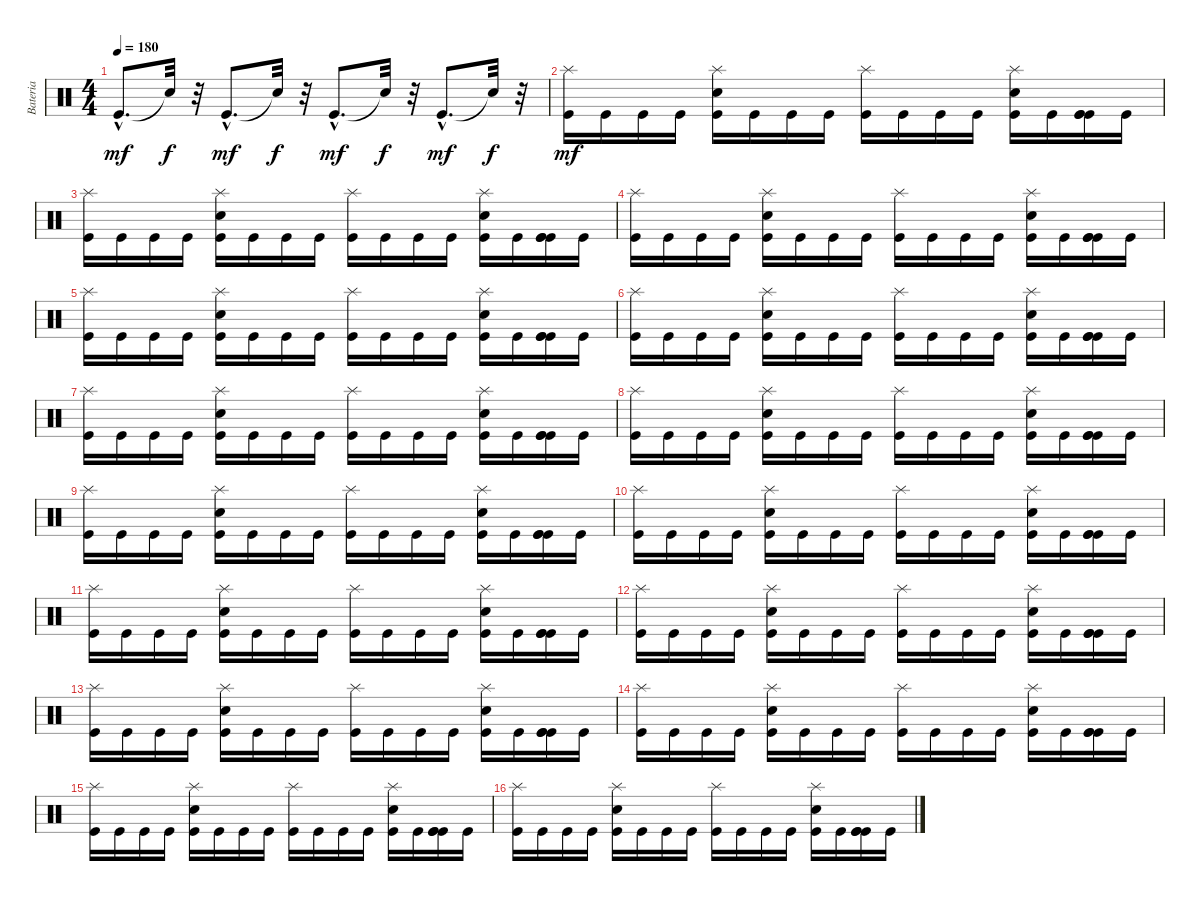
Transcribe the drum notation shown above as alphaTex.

\track ("Bateria" "Bateria") {instrument percussion}
\staff {score}
\articulation defaults
\ts (4 4)
\tempo 180
\clef neutral
\ks c "Kick (hit)"{hac}.8{d dy mf} "Snare (hit)"{t}.32{dy f}
r.32 "Kick (hit)"{hac}.8{d dy mf} "Snare (hit)"{t}.32{dy f} r.32 "Kick (hit)"{hac}.8{d dy mf} "Snare (hit)"{t}.32{dy f} r.32 "Kick (hit)"{hac}.8{d dy mf} "Snare (hit)"{t}.32{dy f} r.32 |
("Splash (hit)" "Kick (hit)").16{dy mf} "Kick (hit)".16 "Kick (hit)".16 "Kick (hit)".16 ("Kick (hit)" "Splash (hit)" "Snare (hit) 2").16 "Kick (hit)".16 "Kick (hit)".16 "Kick (hit)".16 ("Kick (hit)" "Splash (hit)").16 "Kick (hit)".16 "Kick (hit)".16 "Kick (hit)".16 ("Snare (hit) 2" "Kick (hit)" "Splash (hit)").16 "Kick (hit)".16 ("Kick (hit)" "Kick (hit)" "Kick (hit)").16 "Kick (hit)".16 |
("Splash (hit)" "Kick (hit)").16 "Kick (hit)".16 "Kick (hit)".16 "Kick (hit)".16 ("Kick (hit)" "Snare (hit) 2" "Splash (hit)").16 "Kick (hit)".16 "Kick (hit)".16 "Kick (hit)".16 ("Kick (hit)" "Splash (hit)").16 "Kick (hit)".16 "Kick (hit)".16 "Kick (hit)".16 ("Kick (hit)" "Splash (hit)" "Snare (hit) 2").16 "Kick (hit)".16 ("Kick (hit)" "Kick (hit)" "Kick (hit)").16 "Kick (hit)".16 |
("Kick (hit)" "Splash (hit)").16 "Kick (hit)".16 "Kick (hit)".16 "Kick (hit)".16 ("Snare (hit) 2" "Kick (hit)" "Splash (hit)").16 "Kick (hit)".16 "Kick (hit)".16 "Kick (hit)".16 ("Splash (hit)" "Kick (hit)").16 "Kick (hit)".16 "Kick (hit)".16 "Kick (hit)".16 ("Splash (hit)" "Kick (hit)" "Snare (hit) 2").16 "Kick (hit)".16 ("Kick (hit)" "Kick (hit)" "Kick (hit)").16 "Kick (hit)".16 |
("Splash (hit)" "Kick (hit)").16 "Kick (hit)".16 "Kick (hit)".16 "Kick (hit)".16 ("Splash (hit)" "Kick (hit)" "Snare (hit) 2").16 "Kick (hit)".16 "Kick (hit)".16 "Kick (hit)".16 ("Splash (hit)" "Kick (hit)").16 "Kick (hit)".16 "Kick (hit)".16 "Kick (hit)".16 ("Splash (hit)" "Snare (hit) 2" "Kick (hit)").16 "Kick (hit)".16 ("Kick (hit)" "Kick (hit)" "Kick (hit)").16 "Kick (hit)".16 |
("Kick (hit)" "Splash (hit)").16 "Kick (hit)".16 "Kick (hit)".16 "Kick (hit)".16 ("Splash (hit)" "Kick (hit)" "Snare (hit) 2").16 "Kick (hit)".16 "Kick (hit)".16 "Kick (hit)".16 ("Kick (hit)" "Splash (hit)").16 "Kick (hit)".16 "Kick (hit)".16 "Kick (hit)".16 ("Snare (hit) 2" "Splash (hit)" "Kick (hit)").16 "Kick (hit)".16 ("Kick (hit)" "Kick (hit)" "Kick (hit)").16 "Kick (hit)".16 |
("Splash (hit)" "Kick (hit)").16 "Kick (hit)".16 "Kick (hit)".16 "Kick (hit)".16 ("Kick (hit)" "Snare (hit) 2" "Splash (hit)").16 "Kick (hit)".16 "Kick (hit)".16 "Kick (hit)".16 ("Kick (hit)" "Splash (hit)").16 "Kick (hit)".16 "Kick (hit)".16 "Kick (hit)".16 ("Kick (hit)" "Splash (hit)" "Snare (hit) 2").16 "Kick (hit)".16 ("Kick (hit)" "Kick (hit)" "Kick (hit)").16 "Kick (hit)".16 |
("Kick (hit)" "Splash (hit)").16 "Kick (hit)".16 "Kick (hit)".16 "Kick (hit)".16 ("Snare (hit) 2" "Kick (hit)" "Splash (hit)").16 "Kick (hit)".16 "Kick (hit)".16 "Kick (hit)".16 ("Kick (hit)" "Splash (hit)").16 "Kick (hit)".16 "Kick (hit)".16 "Kick (hit)".16 ("Snare (hit) 2" "Kick (hit)" "Splash (hit)").16 "Kick (hit)".16 ("Kick (hit)" "Kick (hit)" "Kick (hit)").16 "Kick (hit)".16 |
("Splash (hit)" "Kick (hit)").16 "Kick (hit)".16 "Kick (hit)".16 "Kick (hit)".16 ("Splash (hit)" "Snare (hit) 2" "Kick (hit)").16 "Kick (hit)".16 "Kick (hit)".16 "Kick (hit)".16 ("Kick (hit)" "Splash (hit)").16 "Kick (hit)".16 "Kick (hit)".16 "Kick (hit)".16 ("Splash (hit)" "Snare (hit) 2" "Kick (hit)").16 "Kick (hit)".16 ("Kick (hit)" "Kick (hit)" "Kick (hit)").16 "Kick (hit)".16 |
("Kick (hit)" "Splash (hit)").16 "Kick (hit)".16 "Kick (hit)".16 "Kick (hit)".16 ("Snare (hit) 2" "Kick (hit)" "Splash (hit)").16 "Kick (hit)".16 "Kick (hit)".16 "Kick (hit)".16 ("Splash (hit)" "Kick (hit)").16 "Kick (hit)".16 "Kick (hit)".16 "Kick (hit)".16 ("Snare (hit) 2" "Splash (hit)" "Kick (hit)").16 "Kick (hit)".16 ("Kick (hit)" "Kick (hit)" "Kick (hit)").16 "Kick (hit)".16 |
("Splash (hit)" "Kick (hit)").16 "Kick (hit)".16 "Kick (hit)".16 "Kick (hit)".16 ("Splash (hit)" "Snare (hit) 2" "Kick (hit)").16 "Kick (hit)".16 "Kick (hit)".16 "Kick (hit)".16 ("Kick (hit)" "Splash (hit)").16 "Kick (hit)".16 "Kick (hit)".16 "Kick (hit)".16 ("Splash (hit)" "Snare (hit) 2" "Kick (hit)").16 "Kick (hit)".16 ("Kick (hit)" "Kick (hit)" "Kick (hit)").16 "Kick (hit)".16 |
("Kick (hit)" "Splash (hit)").16 "Kick (hit)".16 "Kick (hit)".16 "Kick (hit)".16 ("Snare (hit) 2" "Splash (hit)" "Kick (hit)").16 "Kick (hit)".16 "Kick (hit)".16 "Kick (hit)".16 ("Kick (hit)" "Splash (hit)").16 "Kick (hit)".16 "Kick (hit)".16 "Kick (hit)".16 ("Kick (hit)" "Splash (hit)" "Snare (hit) 2").16 "Kick (hit)".16 ("Kick (hit)" "Kick (hit)" "Kick (hit)").16 "Kick (hit)".16 |
("Kick (hit)" "Splash (hit)").16 "Kick (hit)".16 "Kick (hit)".16 "Kick (hit)".16 ("Splash (hit)" "Snare (hit) 2" "Kick (hit)").16 "Kick (hit)".16 "Kick (hit)".16 "Kick (hit)".16 ("Splash (hit)" "Kick (hit)").16 "Kick (hit)".16 "Kick (hit)".16 "Kick (hit)".16 ("Kick (hit)" "Splash (hit)" "Snare (hit) 2").16 "Kick (hit)".16 ("Kick (hit)" "Kick (hit)" "Kick (hit)").16 "Kick (hit)".16 |
("Splash (hit)" "Kick (hit)").16 "Kick (hit)".16 "Kick (hit)".16 "Kick (hit)".16 ("Splash (hit)" "Snare (hit) 2" "Kick (hit)").16 "Kick (hit)".16 "Kick (hit)".16 "Kick (hit)".16 ("Splash (hit)" "Kick (hit)").16 "Kick (hit)".16 "Kick (hit)".16 "Kick (hit)".16 ("Kick (hit)" "Splash (hit)" "Snare (hit) 2").16 "Kick (hit)".16 ("Kick (hit)" "Kick (hit)" "Kick (hit)").16 "Kick (hit)".16 |
("Kick (hit)" "Splash (hit)").16 "Kick (hit)".16 "Kick (hit)".16 "Kick (hit)".16 ("Snare (hit) 2" "Kick (hit)" "Splash (hit)").16 "Kick (hit)".16 "Kick (hit)".16 "Kick (hit)".16 ("Splash (hit)" "Kick (hit)").16 "Kick (hit)".16 "Kick (hit)".16 "Kick (hit)".16 ("Kick (hit)" "Snare (hit) 2" "Splash (hit)").16 "Kick (hit)".16 ("Kick (hit)" "Kick (hit)" "Kick (hit)").16 "Kick (hit)".16 |
("Kick (hit)" "Splash (hit)").16 "Kick (hit)".16 "Kick (hit)".16 "Kick (hit)".16 ("Snare (hit) 2" "Kick (hit)" "Splash (hit)").16 "Kick (hit)".16 "Kick (hit)".16 "Kick (hit)".16 ("Kick (hit)" "Splash (hit)").16 "Kick (hit)".16 "Kick (hit)".16 "Kick (hit)".16 ("Snare (hit) 2" "Kick (hit)" "Splash (hit)").16 "Kick (hit)".16 ("Kick (hit)" "Kick (hit)" "Kick (hit)").16 "Kick (hit)".16
